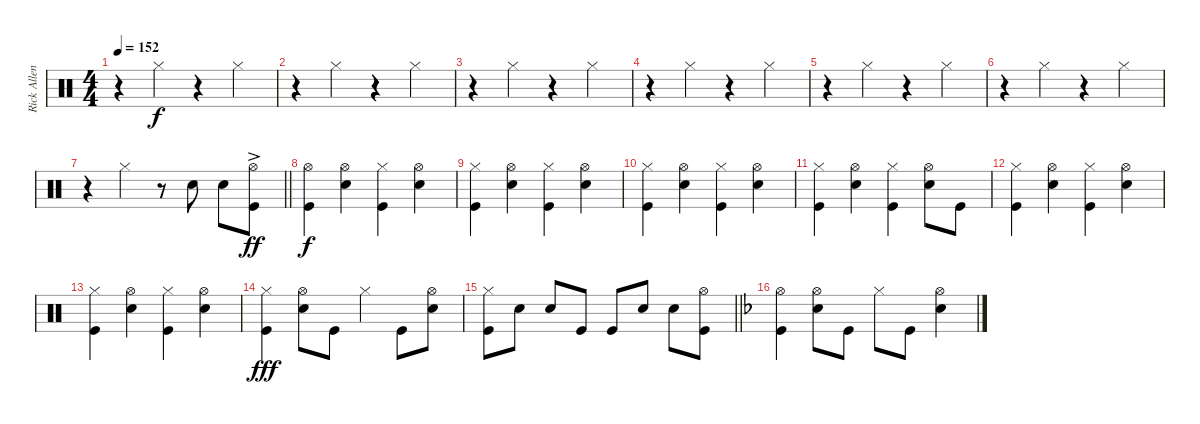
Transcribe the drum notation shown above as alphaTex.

\track ("Rick Allen" "Rick Allen") {instrument percussion}
\staff {score}
\articulation defaults
\ts (4 4)
\tempo 152
\clef neutral
\ks c
r.4{dy f} "Hi-Hat (closed)".4 r.4 "Hi-Hat (closed)".4 |
r.4 "Hi-Hat (closed)".4 r.4 "Hi-Hat (closed)".4 |
r.4 "Hi-Hat (closed)".4 r.4 "Hi-Hat (closed)".4 |
r.4 "Hi-Hat (closed)".4 r.4 "Hi-Hat (closed)".4 |
r.4 "Hi-Hat (closed)".4 r.4 "Hi-Hat (closed)".4 |
r.4 "Hi-Hat (closed)".4 r.4 "Hi-Hat (closed)".4 |
\barLineRight lightlight
r.4 "Hi-Hat (closed)".4 r.8 "Snare (hit) 2".8 "Snare (hit) 2".8 ("Hi-Hat (open)"{ac} "Kick (hit)").8{dy ff} |
("Hi-Hat (open)" "Kick (hit)").4{dy f} ("Hi-Hat (open)" "Snare (hit) 2").4 ("Hi-Hat (closed)" "Kick (hit)").4 ("Hi-Hat (open)" "Snare (hit) 2").4 |
("Hi-Hat (closed)" "Kick (hit)").4 ("Hi-Hat (open)" "Snare (hit) 2").4 ("Hi-Hat (closed)" "Kick (hit)").4 ("Hi-Hat (open)" "Snare (hit) 2").4 |
("Hi-Hat (closed)" "Kick (hit)").4 ("Hi-Hat (open)" "Snare (hit) 2").4 ("Hi-Hat (closed)" "Kick (hit)").4 ("Hi-Hat (open)" "Snare (hit) 2").4 |
("Hi-Hat (closed)" "Kick (hit)").4 ("Hi-Hat (open)" "Snare (hit) 2").4 ("Hi-Hat (closed)" "Kick (hit)").4 ("Hi-Hat (open)" "Snare (hit) 2").8 "Kick (hit)".8 |
("Hi-Hat (closed)" "Kick (hit)").4 ("Hi-Hat (open)" "Snare (hit) 2").4 ("Hi-Hat (closed)" "Kick (hit)").4 ("Hi-Hat (open)" "Snare (hit) 2").4 |
("Hi-Hat (closed)" "Kick (hit)").4 ("Hi-Hat (open)" "Snare (hit) 2").4 ("Hi-Hat (closed)" "Kick (hit)").4 ("Hi-Hat (open)" "Snare (hit) 2").4 |
("Hi-Hat (closed)" "Kick (hit)").4{dy fff} ("Hi-Hat (open)" "Snare (hit) 2").8 "Kick (hit)".8 "Hi-Hat (closed)".4 "Kick (hit)".8 ("Hi-Hat (open)" "Snare (hit) 2").8 |
\barLineRight lightlight
("Hi-Hat (closed)" "Kick (hit)").8 "Snare (hit) 2".8 "Snare (hit) 2".8 "Kick (hit)".8 "Kick (hit)".8 "Snare (hit) 2".8 "Snare (hit) 2".8 ("Hi-Hat (open)" "Kick (hit)").8 |
\ks dminor
("Hi-Hat (open)" "Kick (hit)").4 ("Hi-Hat (open)" "Snare (hit) 2").8 "Kick (hit)".8 "Hi-Hat (closed)".8 "Kick (hit)".8 ("Hi-Hat (open)" "Snare (hit) 2").4
